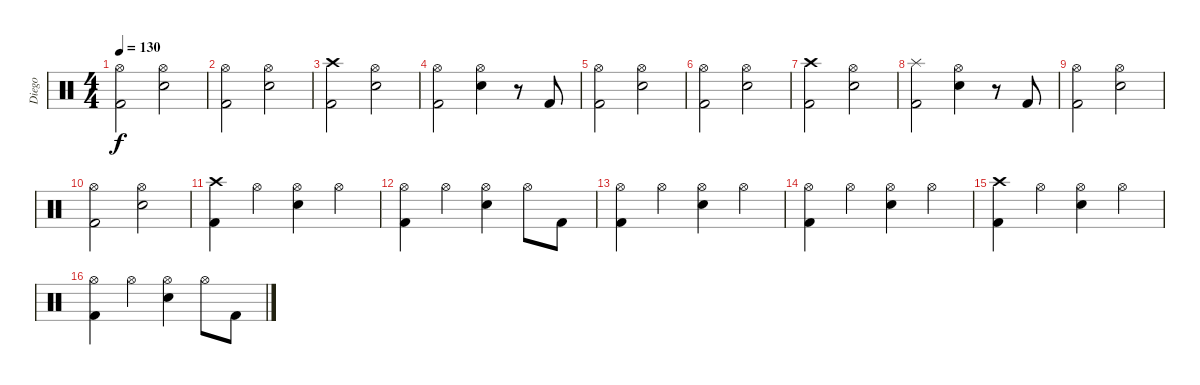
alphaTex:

\track ("Diego" "Diego") {instrument percussion}
\staff {score}
\articulation defaults
\ts (4 4)
\tempo 130
\clef neutral
\ks c
("Hi-Hat (open)" "Kick (hit) 2").2{dy f} ("Hi-Hat (open)" "Electric Snare (hit)").2 |
("Hi-Hat (open)" "Kick (hit) 2").2 ("Hi-Hat (open)" "Electric Snare (hit)").2 |
("Crash high (hit)" "Kick (hit) 2").2 ("Hi-Hat (open)" "Electric Snare (hit)").2 |
("Hi-Hat (open)" "Kick (hit) 2").2 ("Hi-Hat (open)" "Electric Snare (hit)").4 r.8 "Kick (hit) 2".8 |
("Hi-Hat (open)" "Kick (hit) 2").2 ("Hi-Hat (open)" "Electric Snare (hit)").2 |
("Hi-Hat (open)" "Kick (hit) 2").2 ("Hi-Hat (open)" "Electric Snare (hit)").2 |
("Crash high (hit)" "Kick (hit) 2").2 ("Hi-Hat (open)" "Electric Snare (hit)").2 |
("Splash (hit)" "Kick (hit) 2").2 ("Hi-Hat (open)" "Electric Snare (hit)").4 r.8 "Kick (hit) 2".8 |
("Hi-Hat (open)" "Kick (hit) 2").2 ("Hi-Hat (open)" "Electric Snare (hit)").2 |
("Hi-Hat (open)" "Kick (hit) 2").2 ("Hi-Hat (open)" "Electric Snare (hit)").2 |
("Crash high (hit)" "Kick (hit) 2").4 "Hi-Hat (open)".4 ("Hi-Hat (open)" "Electric Snare (hit)").4 "Hi-Hat (open)".4 |
("Hi-Hat (open)" "Kick (hit) 2").4 "Hi-Hat (open)".4 ("Hi-Hat (open)" "Electric Snare (hit)").4 "Hi-Hat (open)".8 "Kick (hit) 2".8 |
("Hi-Hat (open)" "Kick (hit) 2").4 "Hi-Hat (open)".4 ("Hi-Hat (open)" "Electric Snare (hit)").4 "Hi-Hat (open)".4 |
("Hi-Hat (open)" "Kick (hit) 2").4 "Hi-Hat (open)".4 ("Hi-Hat (open)" "Electric Snare (hit)").4 "Hi-Hat (open)".4 |
("Crash high (hit)" "Kick (hit) 2").4 "Hi-Hat (open)".4 ("Hi-Hat (open)" "Electric Snare (hit)").4 "Hi-Hat (open)".4 |
("Hi-Hat (open)" "Kick (hit) 2").4 "Hi-Hat (open)".4 ("Hi-Hat (open)" "Electric Snare (hit)").4 "Hi-Hat (open)".8 "Kick (hit) 2".8
